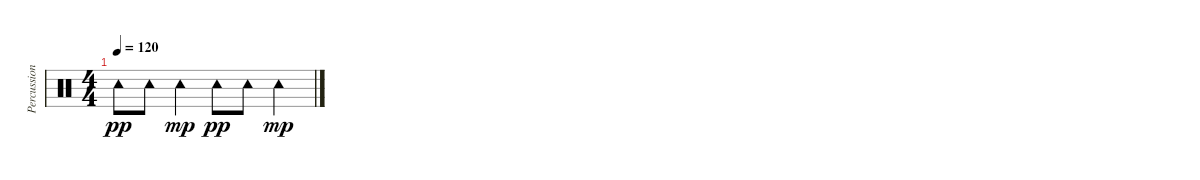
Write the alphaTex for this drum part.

\track ("Percussion" "Percussion") {instrument percussion}
\staff {score}
\articulation defaults
\ts (4 4)
\tempo 120
\clef neutral
\ks c "Tambourine (hit)".8{dy pp} "Tambourine (hit)".8 "Tambourine (hit)".4{dy mp} "Tambourine (hit)".8{dy pp} "Tambourine (hit)".8 "Tambourine (hit)".4{dy mp}
